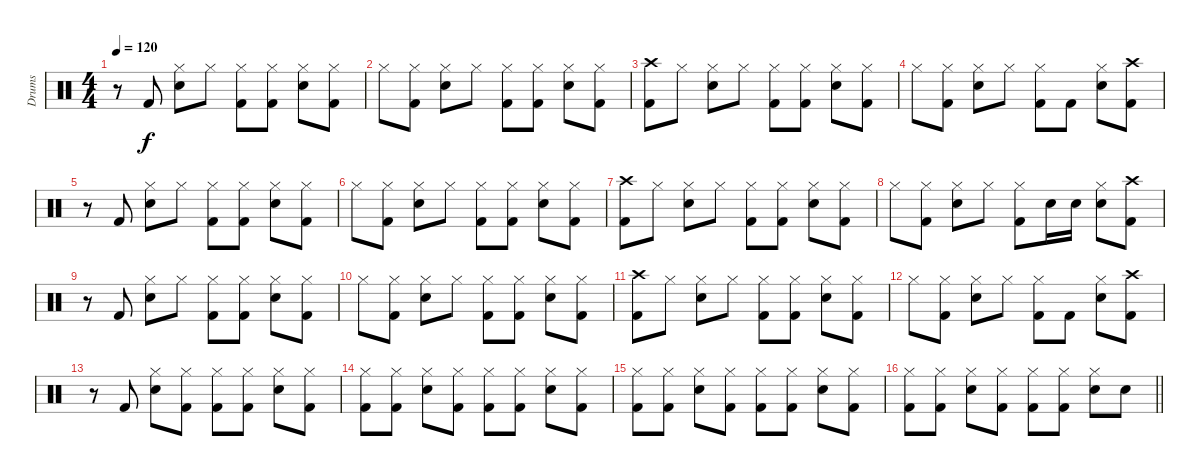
\track ("Drums" "Drums") {instrument percussion}
\staff {score}
\articulation defaults
\ts (4 4)
\tempo 120
\clef neutral
\ks c
r.8{dy f} "Kick (hit) 2".8 ("Hi-Hat (closed)" "Snare (hit) 2").8 "Hi-Hat (closed)".8 ("Hi-Hat (closed)" "Kick (hit) 2").8 ("Hi-Hat (closed)" "Kick (hit) 2").8 ("Hi-Hat (closed)" "Snare (hit) 2").8 ("Hi-Hat (closed)" "Kick (hit) 2").8 |
"Hi-Hat (closed)".8 ("Hi-Hat (closed)" "Kick (hit) 2").8 ("Hi-Hat (closed)" "Snare (hit) 2").8 "Hi-Hat (closed)".8 ("Hi-Hat (closed)" "Kick (hit) 2").8 ("Hi-Hat (closed)" "Kick (hit) 2").8 ("Hi-Hat (closed)" "Snare (hit) 2").8 ("Hi-Hat (closed)" "Kick (hit) 2").8 |
("Crash high (hit)" "Kick (hit) 2").8 "Hi-Hat (closed)".8 ("Hi-Hat (closed)" "Snare (hit) 2").8 "Hi-Hat (closed)".8 ("Hi-Hat (closed)" "Kick (hit) 2").8 ("Hi-Hat (closed)" "Kick (hit) 2").8 ("Hi-Hat (closed)" "Snare (hit) 2").8 ("Hi-Hat (closed)" "Kick (hit) 2").8 |
"Hi-Hat (closed)".8 ("Hi-Hat (closed)" "Kick (hit) 2").8 ("Hi-Hat (closed)" "Snare (hit) 2").8 "Hi-Hat (closed)".8 ("Hi-Hat (closed)" "Kick (hit) 2").8 "Kick (hit) 2".8 ("Hi-Hat (closed)" "Snare (hit) 2").8 ("Crash high (hit)" "Kick (hit) 2").8 |
r.8 "Kick (hit) 2".8 ("Hi-Hat (closed)" "Snare (hit) 2").8 "Hi-Hat (closed)".8 ("Hi-Hat (closed)" "Kick (hit) 2").8 ("Hi-Hat (closed)" "Kick (hit) 2").8 ("Hi-Hat (closed)" "Snare (hit) 2").8 ("Hi-Hat (closed)" "Kick (hit) 2").8 |
"Hi-Hat (closed)".8 ("Hi-Hat (closed)" "Kick (hit) 2").8 ("Hi-Hat (closed)" "Snare (hit) 2").8 "Hi-Hat (closed)".8 ("Hi-Hat (closed)" "Kick (hit) 2").8 ("Hi-Hat (closed)" "Kick (hit) 2").8 ("Hi-Hat (closed)" "Snare (hit) 2").8 ("Hi-Hat (closed)" "Kick (hit) 2").8 |
("Crash high (hit)" "Kick (hit) 2").8 "Hi-Hat (closed)".8 ("Hi-Hat (closed)" "Snare (hit) 2").8 "Hi-Hat (closed)".8 ("Hi-Hat (closed)" "Kick (hit) 2").8 ("Hi-Hat (closed)" "Kick (hit) 2").8 ("Hi-Hat (closed)" "Snare (hit) 2").8 ("Hi-Hat (closed)" "Kick (hit) 2").8 |
"Hi-Hat (closed)".8 ("Hi-Hat (closed)" "Kick (hit) 2").8 ("Hi-Hat (closed)" "Snare (hit) 2").8 "Hi-Hat (closed)".8 ("Hi-Hat (closed)" "Kick (hit) 2").8 "Snare (hit) 2".16 "Snare (hit) 2".16 ("Hi-Hat (closed)" "Snare (hit) 2").8 ("Crash high (hit)" "Kick (hit) 2").8 |
r.8 "Kick (hit) 2".8 ("Hi-Hat (closed)" "Snare (hit) 2").8 "Hi-Hat (closed)".8 ("Hi-Hat (closed)" "Kick (hit) 2").8 ("Hi-Hat (closed)" "Kick (hit) 2").8 ("Hi-Hat (closed)" "Snare (hit) 2").8 ("Hi-Hat (closed)" "Kick (hit) 2").8 |
"Hi-Hat (closed)".8 ("Hi-Hat (closed)" "Kick (hit) 2").8 ("Hi-Hat (closed)" "Snare (hit) 2").8 "Hi-Hat (closed)".8 ("Hi-Hat (closed)" "Kick (hit) 2").8 ("Hi-Hat (closed)" "Kick (hit) 2").8 ("Hi-Hat (closed)" "Snare (hit) 2").8 ("Hi-Hat (closed)" "Kick (hit) 2").8 |
("Crash high (hit)" "Kick (hit) 2").8 "Hi-Hat (closed)".8 ("Hi-Hat (closed)" "Snare (hit) 2").8 "Hi-Hat (closed)".8 ("Hi-Hat (closed)" "Kick (hit) 2").8 ("Hi-Hat (closed)" "Kick (hit) 2").8 ("Hi-Hat (closed)" "Snare (hit) 2").8 ("Hi-Hat (closed)" "Kick (hit) 2").8 |
"Hi-Hat (closed)".8 ("Hi-Hat (closed)" "Kick (hit) 2").8 ("Hi-Hat (closed)" "Snare (hit) 2").8 "Hi-Hat (closed)".8 ("Hi-Hat (closed)" "Kick (hit) 2").8 "Kick (hit) 2".8 ("Hi-Hat (closed)" "Snare (hit) 2").8 ("Crash high (hit)" "Kick (hit) 2").8 |
r.8 "Kick (hit) 2".8 ("Hi-Hat (closed)" "Snare (hit) 2").8 ("Hi-Hat (closed)" "Kick (hit) 2").8 ("Hi-Hat (closed)" "Kick (hit) 2").8 ("Hi-Hat (closed)" "Kick (hit) 2").8 ("Hi-Hat (closed)" "Snare (hit) 2").8 ("Hi-Hat (closed)" "Kick (hit) 2").8 |
("Hi-Hat (closed)" "Kick (hit) 2").8 ("Hi-Hat (closed)" "Kick (hit) 2").8 ("Hi-Hat (closed)" "Snare (hit) 2").8 ("Hi-Hat (closed)" "Kick (hit) 2").8 ("Hi-Hat (closed)" "Kick (hit) 2").8 ("Hi-Hat (closed)" "Kick (hit) 2").8 ("Hi-Hat (closed)" "Snare (hit) 2").8 ("Hi-Hat (closed)" "Kick (hit) 2").8 |
("Hi-Hat (closed)" "Kick (hit) 2").8 ("Hi-Hat (closed)" "Kick (hit) 2").8 ("Hi-Hat (closed)" "Snare (hit) 2").8 ("Hi-Hat (closed)" "Kick (hit) 2").8 ("Hi-Hat (closed)" "Kick (hit) 2").8 ("Hi-Hat (closed)" "Kick (hit) 2").8 ("Hi-Hat (closed)" "Snare (hit) 2").8 ("Hi-Hat (closed)" "Kick (hit) 2").8 |
\barLineRight lightlight
("Hi-Hat (closed)" "Kick (hit) 2").8 ("Hi-Hat (closed)" "Kick (hit) 2").8 ("Hi-Hat (closed)" "Snare (hit) 2").8 ("Hi-Hat (closed)" "Kick (hit) 2").8 ("Hi-Hat (closed)" "Kick (hit) 2").8 ("Hi-Hat (closed)" "Kick (hit) 2").8 ("Hi-Hat (closed)" "Snare (hit) 2").8 "Snare (hit) 2".8
